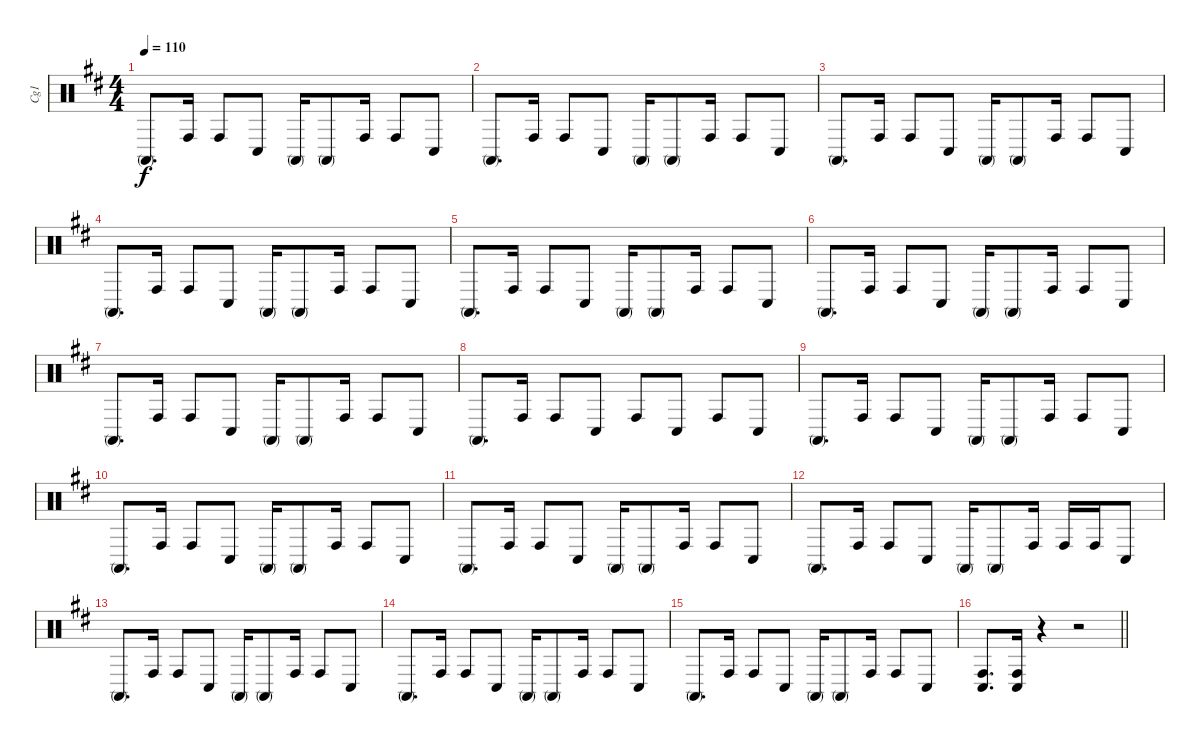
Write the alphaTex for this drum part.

\track ("Cg1" "Cg1") {instrument percussion}
\staff {score}
\articulation defaults
\ts (4 4)
\tempo 110
\clef neutral
\ks d "Conga high (mute)".8{d dy f} "Conga high (hit)".16 "Conga high (hit)".8 "Conga low (hit)".8 "Conga high (mute)".16 "Conga high (mute)".8 "Conga high (hit)".16 "Conga high (hit)".8 "Conga low (hit)".8
|
"Conga high (mute)".8{d} "Conga high (hit)".16 "Conga high (hit)".8 "Conga low (hit)".8 "Conga high (mute)".16 "Conga high (mute)".8 "Conga high (hit)".16 "Conga high (hit)".8 "Conga low (hit)".8 |
"Conga high (mute)".8{d} "Conga high (hit)".16 "Conga high (hit)".8 "Conga low (hit)".8 "Conga high (mute)".16 "Conga high (mute)".8 "Conga high (hit)".16 "Conga high (hit)".8 "Conga low (hit)".8 |
"Conga high (mute)".8{d} "Conga high (hit)".16 "Conga high (hit)".8 "Conga low (hit)".8 "Conga high (mute)".16 "Conga high (mute)".8 "Conga high (hit)".16 "Conga high (hit)".8 "Conga low (hit)".8 |
"Conga high (mute)".8{d} "Conga high (hit)".16 "Conga high (hit)".8 "Conga low (hit)".8 "Conga high (mute)".16 "Conga high (mute)".8 "Conga high (hit)".16 "Conga high (hit)".8 "Conga low (hit)".8 |
"Conga high (mute)".8{d} "Conga high (hit)".16 "Conga high (hit)".8 "Conga low (hit)".8 "Conga high (mute)".16 "Conga high (mute)".8 "Conga high (hit)".16 "Conga high (hit)".8 "Conga low (hit)".8 |
"Conga high (mute)".8{d} "Conga high (hit)".16 "Conga high (hit)".8 "Conga low (hit)".8 "Conga high (mute)".16 "Conga high (mute)".8 "Conga high (hit)".16 "Conga high (hit)".8 "Conga low (hit)".8 |
"Conga high (mute)".8{d} "Conga high (hit)".16 "Conga high (hit)".8 "Conga low (hit)".8 "Conga high (hit)".8 "Conga low (hit)".8 "Conga high (hit)".8 "Conga low (hit)".8 |
"Conga high (mute)".8{d} "Conga high (hit)".16 "Conga high (hit)".8 "Conga low (hit)".8 "Conga high (mute)".16 "Conga high (mute)".8 "Conga high (hit)".16 "Conga high (hit)".8 "Conga low (hit)".8 |
"Conga high (mute)".8{d} "Conga high (hit)".16 "Conga high (hit)".8 "Conga low (hit)".8 "Conga high (mute)".16 "Conga high (mute)".8 "Conga high (hit)".16 "Conga high (hit)".8 "Conga low (hit)".8 |
"Conga high (mute)".8{d} "Conga high (hit)".16 "Conga high (hit)".8 "Conga low (hit)".8 "Conga high (mute)".16 "Conga high (mute)".8 "Conga high (hit)".16 "Conga high (hit)".8 "Conga low (hit)".8 |
"Conga high (mute)".8{d} "Conga high (hit)".16 "Conga high (hit)".8 "Conga low (hit)".8 "Conga high (mute)".16 "Conga high (mute)".8 "Conga high (hit)".16 "Conga high (hit)".16 "Conga high (hit)".16 "Conga low (hit)".8 |
"Conga high (mute)".8{d} "Conga high (hit)".16 "Conga high (hit)".8 "Conga low (hit)".8 "Conga high (mute)".16 "Conga high (mute)".8 "Conga high (hit)".16 "Conga high (hit)".8 "Conga low (hit)".8 |
"Conga high (mute)".8{d} "Conga high (hit)".16 "Conga high (hit)".8 "Conga low (hit)".8 "Conga high (mute)".16 "Conga high (mute)".8 "Conga high (hit)".16 "Conga high (hit)".8 "Conga low (hit)".8 |
"Conga high (mute)".8{d} "Conga high (hit)".16 "Conga high (hit)".8 "Conga low (hit)".8 "Conga high (mute)".16 "Conga high (mute)".8 "Conga high (hit)".16 "Conga high (hit)".8 "Conga low (hit)".8 |
\barLineRight lightlight
("Conga high (hit)" "Conga low (hit)").8{d} ("Conga high (hit)" "Conga low (hit)").16 r.4 r.2
